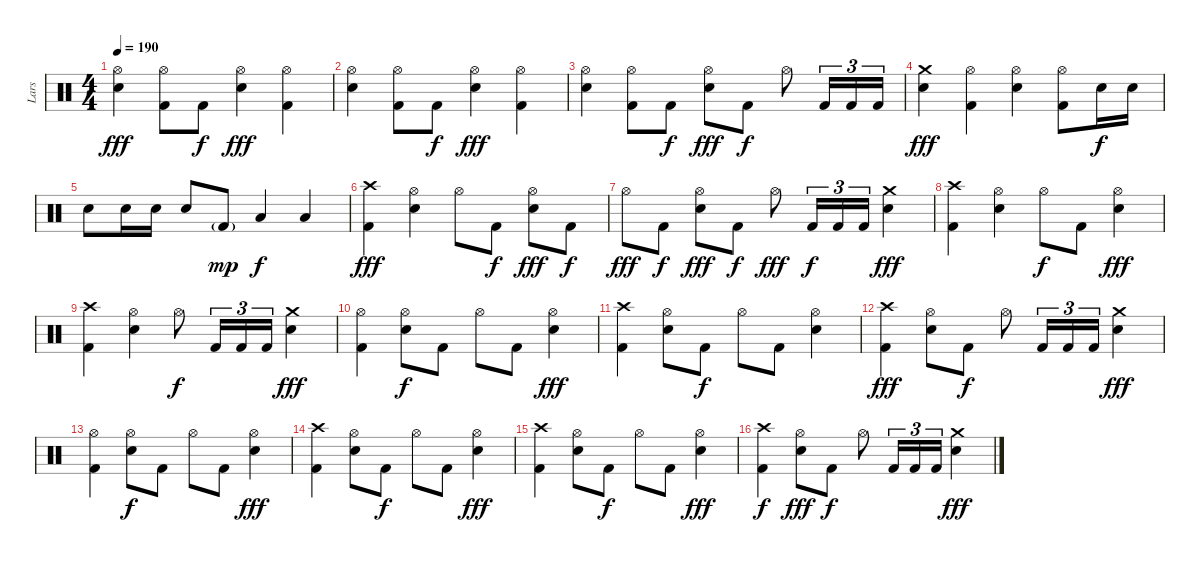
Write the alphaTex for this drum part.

\track ("Lars" "Lars") {instrument percussion}
\staff {score}
\articulation defaults
\ts (4 4)
\tempo 190
\clef neutral
\ks c
("Hi-Hat (open)" "Snare (hit) 2").4{dy fff} ("Hi-Hat (open)" "Kick (hit) 2").8 "Kick (hit) 2".8{dy f} ("Hi-Hat (open)" "Snare (hit) 2").4{dy fff} ("Hi-Hat (open)" "Kick (hit) 2").4 |
("Hi-Hat (open)" "Snare (hit) 2").4 ("Hi-Hat (open)" "Kick (hit) 2").8 "Kick (hit) 2".8{dy f} ("Hi-Hat (open)" "Snare (hit) 2").4{dy fff} ("Hi-Hat (open)" "Kick (hit) 2").4 |
("Hi-Hat (open)" "Snare (hit) 2").4 ("Hi-Hat (open)" "Kick (hit) 2").8 "Kick (hit) 2".8{dy f} ("Hi-Hat (open)" "Snare (hit) 2").8{dy fff} "Kick (hit) 2".8{dy f} "Hi-Hat (open)".8 "Kick (hit) 2".16{tu (3 2)} "Kick (hit) 2".16{tu (3 2)} "Kick (hit) 2".16{tu (3 2)} |
("Crash medium (hit)" "Snare (hit) 2").4{dy fff} ("Hi-Hat (open)" "Kick (hit) 2").4 ("Hi-Hat (open)" "Snare (hit) 2").4 ("Hi-Hat (open)" "Kick (hit) 2").8 "Snare (hit) 2".16{dy f} "Snare (hit) 2".16 |
"Snare (hit) 2".8 "Snare (hit) 2".16 "Snare (hit) 2".16 "Snare (hit) 2".8 "Kick (hit) 2"{g}.8{dy mp} "Low Tom (hit)".4{dy f} "Low Tom (hit)".4 |
("Crash high (hit)" "Kick (hit) 2").4{dy fff} ("Hi-Hat (open)" "Snare (hit) 2").4 "Hi-Hat (open)".8 "Kick (hit) 2".8{dy f} ("Hi-Hat (open)" "Snare (hit) 2").8{dy fff} "Kick (hit) 2".8{dy f} |
"Hi-Hat (open)".8{dy fff} "Kick (hit) 2".8{dy f} ("Hi-Hat (open)" "Snare (hit) 2").8{dy fff} "Kick (hit) 2".8{dy f} "Hi-Hat (open)".8{dy fff} "Kick (hit) 2".16{tu (3 2) dy f} "Kick (hit) 2".16{tu (3 2)} "Kick (hit) 2".16{tu (3 2)} ("Crash medium (hit)" "Snare (hit) 2").4{dy fff} |
("Crash high (hit)" "Kick (hit) 2").4 ("Hi-Hat (open)" "Snare (hit) 2").4 "Hi-Hat (open)".8{dy f} "Kick (hit) 2".8 ("Hi-Hat (open)" "Snare (hit) 2").4{dy fff} |
("Crash high (hit)" "Kick (hit) 2").4 ("Hi-Hat (open)" "Snare (hit) 2").4 "Hi-Hat (open)".8{dy f} "Kick (hit) 2".16{tu (3 2)} "Kick (hit) 2".16{tu (3 2)} "Kick (hit) 2".16{tu (3 2)} ("Crash medium (hit)" "Snare (hit) 2").4{dy fff} |
("Hi-Hat (open)" "Kick (hit) 2").4 ("Hi-Hat (open)" "Snare (hit) 2").8{dy f} "Kick (hit) 2".8 "Hi-Hat (open)".8 "Kick (hit) 2".8 ("Hi-Hat (open)" "Snare (hit) 2").4{dy fff} |
("Crash high (hit)" "Kick (hit) 2").4 ("Hi-Hat (open)" "Snare (hit) 2").8 "Kick (hit) 2".8{dy f} "Hi-Hat (open)".8 "Kick (hit) 2".8 ("Hi-Hat (open)" "Snare (hit) 2").4 |
("Crash high (hit)" "Kick (hit) 2").4{dy fff} ("Hi-Hat (open)" "Snare (hit) 2").8 "Kick (hit) 2".8{dy f} "Hi-Hat (open)".8 "Kick (hit) 2".16{tu (3 2)} "Kick (hit) 2".16{tu (3 2)} "Kick (hit) 2".16{tu (3 2)} ("Crash medium (hit)" "Snare (hit) 2").4{dy fff} |
("Hi-Hat (open)" "Kick (hit) 2").4 ("Hi-Hat (open)" "Snare (hit) 2").8{dy f} "Kick (hit) 2".8 "Hi-Hat (open)".8 "Kick (hit) 2".8 ("Hi-Hat (open)" "Snare (hit) 2").4{dy fff} |
("Crash high (hit)" "Kick (hit) 2").4 ("Hi-Hat (open)" "Snare (hit) 2").8 "Kick (hit) 2".8{dy f} "Hi-Hat (open)".8 "Kick (hit) 2".8 ("Hi-Hat (open)" "Snare (hit) 2").4{dy fff} |
("Crash high (hit)" "Kick (hit) 2").4 ("Hi-Hat (open)" "Snare (hit) 2").8 "Kick (hit) 2".8{dy f} "Hi-Hat (open)".8 "Kick (hit) 2".8 ("Hi-Hat (open)" "Snare (hit) 2").4{dy fff} |
("Crash high (hit)" "Kick (hit) 2").4{dy f} ("Hi-Hat (open)" "Snare (hit) 2").8{dy fff} "Kick (hit) 2".8{dy f} "Hi-Hat (open)".8 "Kick (hit) 2".16{tu (3 2)} "Kick (hit) 2".16{tu (3 2)} "Kick (hit) 2".16{tu (3 2)} ("Crash medium (hit)" "Snare (hit) 2").4{dy fff}
